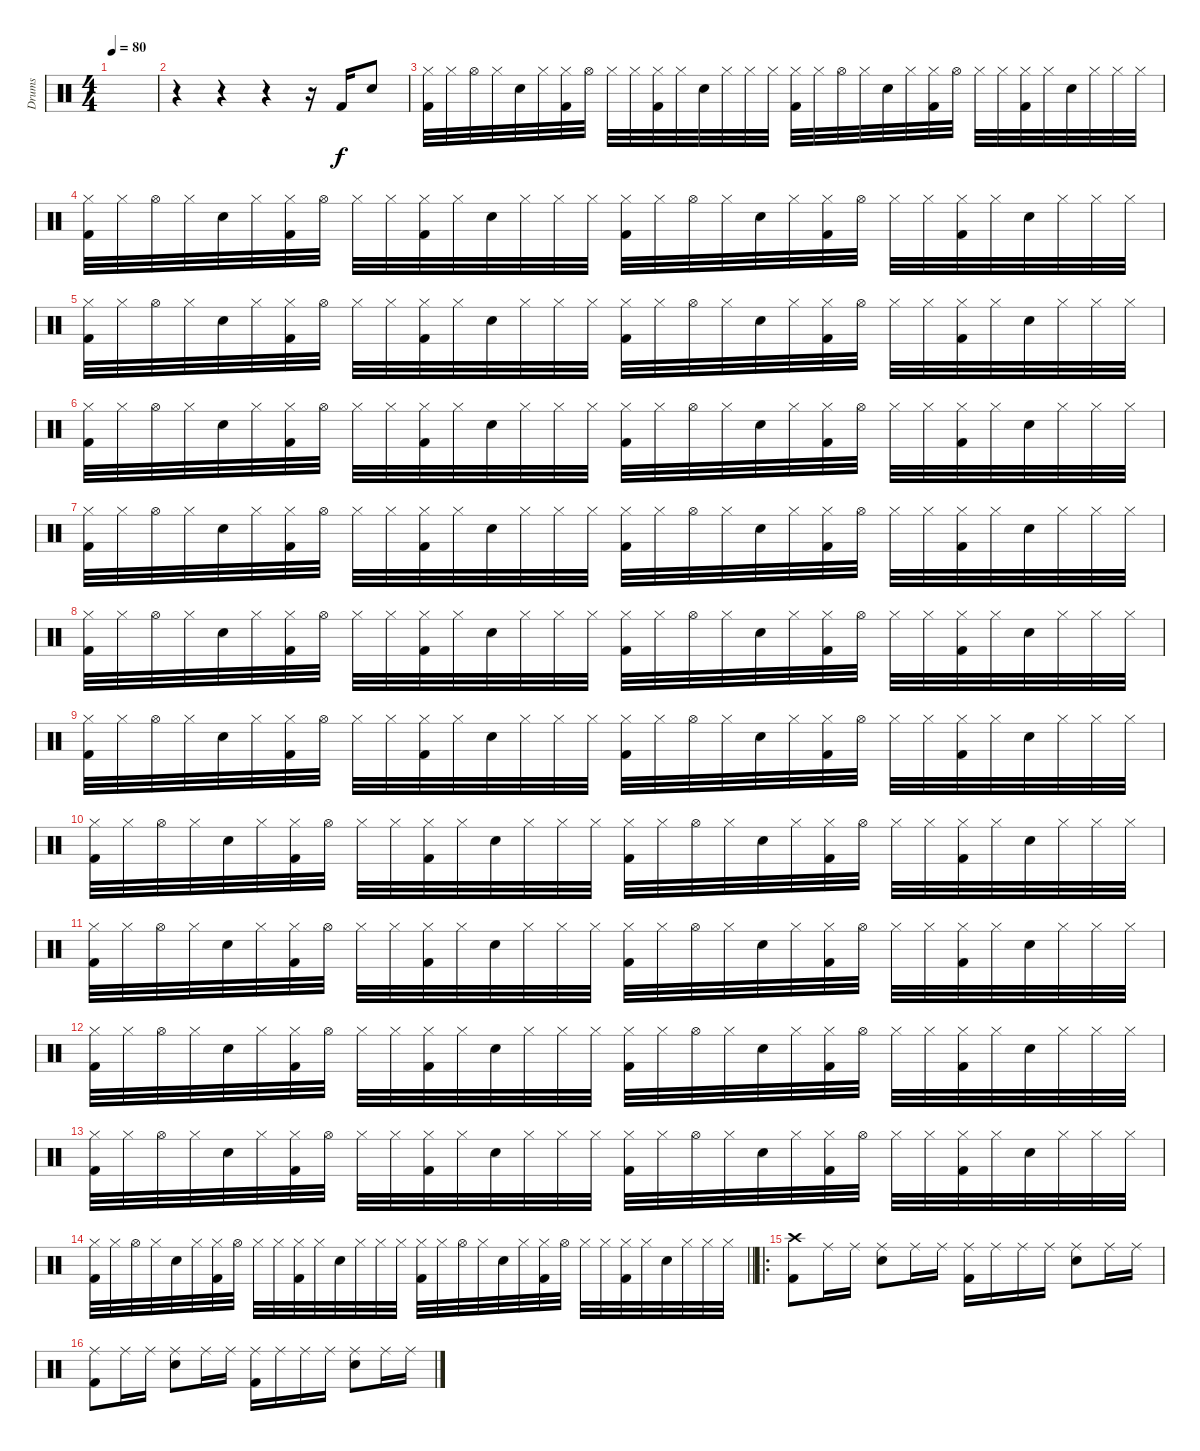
\track ("Drums" "Drums") {instrument percussion}
\staff {score}
\articulation defaults
\ts (4 4)
\section ("" "")
\tempo 80
\clef neutral
\ks c
|
r.4 r.4 r.4 r.16 "Kick (hit) 2".16 "Electric Snare (hit)".8 |
("Kick (hit) 2" "Hi-Hat (closed)").32 "Hi-Hat (closed)".32 "Hi-Hat (open)".32 "Hi-Hat (closed)".32 "Electric Snare (hit)".32 "Hi-Hat (closed)".32 ("Kick (hit) 2" "Hi-Hat (closed)").32 "Hi-Hat (open)".32 "Hi-Hat (closed)".32 "Hi-Hat (closed)".32 ("Kick (hit) 2" "Hi-Hat (closed)").32 "Hi-Hat (closed)".32 "Electric Snare (hit)".32 "Hi-Hat (closed)".32 "Hi-Hat (closed)".32 "Hi-Hat (closed)".32 ("Kick (hit) 2" "Hi-Hat (closed)").32 "Hi-Hat (closed)".32 "Hi-Hat (open)".32 "Hi-Hat (closed)".32 "Electric Snare (hit)".32 "Hi-Hat (closed)".32 ("Kick (hit) 2" "Hi-Hat (closed)").32 "Hi-Hat (open)".32 "Hi-Hat (closed)".32 "Hi-Hat (closed)".32 ("Kick (hit) 2" "Hi-Hat (closed)").32 "Hi-Hat (closed)".32 "Electric Snare (hit)".32 "Hi-Hat (closed)".32 "Hi-Hat (closed)".32 "Hi-Hat (closed)".32 |
("Kick (hit) 2" "Hi-Hat (closed)").32 "Hi-Hat (closed)".32 "Hi-Hat (open)".32 "Hi-Hat (closed)".32 "Electric Snare (hit)".32 "Hi-Hat (closed)".32 ("Kick (hit) 2" "Hi-Hat (closed)").32 "Hi-Hat (open)".32 "Hi-Hat (closed)".32 "Hi-Hat (closed)".32 ("Kick (hit) 2" "Hi-Hat (closed)").32 "Hi-Hat (closed)".32 "Electric Snare (hit)".32 "Hi-Hat (closed)".32 "Hi-Hat (closed)".32 "Hi-Hat (closed)".32 ("Kick (hit) 2" "Hi-Hat (closed)").32 "Hi-Hat (closed)".32 "Hi-Hat (open)".32 "Hi-Hat (closed)".32 "Electric Snare (hit)".32 "Hi-Hat (closed)".32 ("Kick (hit) 2" "Hi-Hat (closed)").32 "Hi-Hat (open)".32 "Hi-Hat (closed)".32 "Hi-Hat (closed)".32 ("Kick (hit) 2" "Hi-Hat (closed)").32 "Hi-Hat (closed)".32 "Electric Snare (hit)".32 "Hi-Hat (closed)".32 "Hi-Hat (closed)".32 "Hi-Hat (closed)".32 |
("Kick (hit) 2" "Hi-Hat (closed)").32 "Hi-Hat (closed)".32 "Hi-Hat (open)".32 "Hi-Hat (closed)".32 "Electric Snare (hit)".32 "Hi-Hat (closed)".32 ("Kick (hit) 2" "Hi-Hat (closed)").32 "Hi-Hat (open)".32 "Hi-Hat (closed)".32 "Hi-Hat (closed)".32 ("Kick (hit) 2" "Hi-Hat (closed)").32 "Hi-Hat (closed)".32 "Electric Snare (hit)".32 "Hi-Hat (closed)".32 "Hi-Hat (closed)".32 "Hi-Hat (closed)".32 ("Kick (hit) 2" "Hi-Hat (closed)").32 "Hi-Hat (closed)".32 "Hi-Hat (open)".32 "Hi-Hat (closed)".32 "Electric Snare (hit)".32 "Hi-Hat (closed)".32 ("Kick (hit) 2" "Hi-Hat (closed)").32 "Hi-Hat (open)".32 "Hi-Hat (closed)".32 "Hi-Hat (closed)".32 ("Kick (hit) 2" "Hi-Hat (closed)").32 "Hi-Hat (closed)".32 "Electric Snare (hit)".32 "Hi-Hat (closed)".32 "Hi-Hat (closed)".32 "Hi-Hat (closed)".32 |
("Kick (hit) 2" "Hi-Hat (closed)").32 "Hi-Hat (closed)".32 "Hi-Hat (open)".32 "Hi-Hat (closed)".32 "Electric Snare (hit)".32 "Hi-Hat (closed)".32 ("Kick (hit) 2" "Hi-Hat (closed)").32 "Hi-Hat (open)".32 "Hi-Hat (closed)".32 "Hi-Hat (closed)".32 ("Kick (hit) 2" "Hi-Hat (closed)").32 "Hi-Hat (closed)".32 "Electric Snare (hit)".32 "Hi-Hat (closed)".32 "Hi-Hat (closed)".32 "Hi-Hat (closed)".32 ("Kick (hit) 2" "Hi-Hat (closed)").32 "Hi-Hat (closed)".32 "Hi-Hat (open)".32 "Hi-Hat (closed)".32 "Electric Snare (hit)".32 "Hi-Hat (closed)".32 ("Kick (hit) 2" "Hi-Hat (closed)").32 "Hi-Hat (open)".32 "Hi-Hat (closed)".32 "Hi-Hat (closed)".32 ("Kick (hit) 2" "Hi-Hat (closed)").32 "Hi-Hat (closed)".32 "Electric Snare (hit)".32 "Hi-Hat (closed)".32 "Hi-Hat (closed)".32 "Hi-Hat (closed)".32 |
("Kick (hit) 2" "Hi-Hat (closed)").32 "Hi-Hat (closed)".32 "Hi-Hat (open)".32 "Hi-Hat (closed)".32 "Electric Snare (hit)".32 "Hi-Hat (closed)".32 ("Kick (hit) 2" "Hi-Hat (closed)").32 "Hi-Hat (open)".32 "Hi-Hat (closed)".32 "Hi-Hat (closed)".32 ("Kick (hit) 2" "Hi-Hat (closed)").32 "Hi-Hat (closed)".32 "Electric Snare (hit)".32 "Hi-Hat (closed)".32 "Hi-Hat (closed)".32 "Hi-Hat (closed)".32 ("Kick (hit) 2" "Hi-Hat (closed)").32 "Hi-Hat (closed)".32 "Hi-Hat (open)".32 "Hi-Hat (closed)".32 "Electric Snare (hit)".32 "Hi-Hat (closed)".32 ("Kick (hit) 2" "Hi-Hat (closed)").32 "Hi-Hat (open)".32 "Hi-Hat (closed)".32 "Hi-Hat (closed)".32 ("Kick (hit) 2" "Hi-Hat (closed)").32 "Hi-Hat (closed)".32 "Electric Snare (hit)".32 "Hi-Hat (closed)".32 "Hi-Hat (closed)".32 "Hi-Hat (closed)".32 |
("Kick (hit) 2" "Hi-Hat (closed)").32 "Hi-Hat (closed)".32 "Hi-Hat (open)".32 "Hi-Hat (closed)".32 "Electric Snare (hit)".32 "Hi-Hat (closed)".32 ("Kick (hit) 2" "Hi-Hat (closed)").32 "Hi-Hat (open)".32 "Hi-Hat (closed)".32 "Hi-Hat (closed)".32 ("Kick (hit) 2" "Hi-Hat (closed)").32 "Hi-Hat (closed)".32 "Electric Snare (hit)".32 "Hi-Hat (closed)".32 "Hi-Hat (closed)".32 "Hi-Hat (closed)".32 ("Kick (hit) 2" "Hi-Hat (closed)").32 "Hi-Hat (closed)".32 "Hi-Hat (open)".32 "Hi-Hat (closed)".32 "Electric Snare (hit)".32 "Hi-Hat (closed)".32 ("Kick (hit) 2" "Hi-Hat (closed)").32 "Hi-Hat (open)".32 "Hi-Hat (closed)".32 "Hi-Hat (closed)".32 ("Kick (hit) 2" "Hi-Hat (closed)").32 "Hi-Hat (closed)".32 "Electric Snare (hit)".32 "Hi-Hat (closed)".32 "Hi-Hat (closed)".32 "Hi-Hat (closed)".32 |
("Kick (hit) 2" "Hi-Hat (closed)").32 "Hi-Hat (closed)".32 "Hi-Hat (open)".32 "Hi-Hat (closed)".32 "Electric Snare (hit)".32 "Hi-Hat (closed)".32 ("Kick (hit) 2" "Hi-Hat (closed)").32 "Hi-Hat (open)".32 "Hi-Hat (closed)".32 "Hi-Hat (closed)".32 ("Kick (hit) 2" "Hi-Hat (closed)").32 "Hi-Hat (closed)".32 "Electric Snare (hit)".32 "Hi-Hat (closed)".32 "Hi-Hat (closed)".32 "Hi-Hat (closed)".32 ("Kick (hit) 2" "Hi-Hat (closed)").32 "Hi-Hat (closed)".32 "Hi-Hat (open)".32 "Hi-Hat (closed)".32 "Electric Snare (hit)".32 "Hi-Hat (closed)".32 ("Kick (hit) 2" "Hi-Hat (closed)").32 "Hi-Hat (open)".32 "Hi-Hat (closed)".32 "Hi-Hat (closed)".32 ("Kick (hit) 2" "Hi-Hat (closed)").32 "Hi-Hat (closed)".32 "Electric Snare (hit)".32 "Hi-Hat (closed)".32 "Hi-Hat (closed)".32 "Hi-Hat (closed)".32 |
("Kick (hit) 2" "Hi-Hat (closed)").32 "Hi-Hat (closed)".32 "Hi-Hat (open)".32 "Hi-Hat (closed)".32 "Electric Snare (hit)".32 "Hi-Hat (closed)".32 ("Kick (hit) 2" "Hi-Hat (closed)").32 "Hi-Hat (open)".32 "Hi-Hat (closed)".32 "Hi-Hat (closed)".32 ("Kick (hit) 2" "Hi-Hat (closed)").32 "Hi-Hat (closed)".32 "Electric Snare (hit)".32 "Hi-Hat (closed)".32 "Hi-Hat (closed)".32 "Hi-Hat (closed)".32 ("Kick (hit) 2" "Hi-Hat (closed)").32 "Hi-Hat (closed)".32 "Hi-Hat (open)".32 "Hi-Hat (closed)".32 "Electric Snare (hit)".32 "Hi-Hat (closed)".32 ("Kick (hit) 2" "Hi-Hat (closed)").32 "Hi-Hat (open)".32 "Hi-Hat (closed)".32 "Hi-Hat (closed)".32 ("Kick (hit) 2" "Hi-Hat (closed)").32 "Hi-Hat (closed)".32 "Electric Snare (hit)".32 "Hi-Hat (closed)".32 "Hi-Hat (closed)".32 "Hi-Hat (closed)".32 |
("Kick (hit) 2" "Hi-Hat (closed)").32 "Hi-Hat (closed)".32 "Hi-Hat (open)".32 "Hi-Hat (closed)".32 "Electric Snare (hit)".32 "Hi-Hat (closed)".32 ("Kick (hit) 2" "Hi-Hat (closed)").32 "Hi-Hat (open)".32 "Hi-Hat (closed)".32 "Hi-Hat (closed)".32 ("Kick (hit) 2" "Hi-Hat (closed)").32 "Hi-Hat (closed)".32 "Electric Snare (hit)".32 "Hi-Hat (closed)".32 "Hi-Hat (closed)".32 "Hi-Hat (closed)".32 ("Kick (hit) 2" "Hi-Hat (closed)").32 "Hi-Hat (closed)".32 "Hi-Hat (open)".32 "Hi-Hat (closed)".32 "Electric Snare (hit)".32 "Hi-Hat (closed)".32 ("Kick (hit) 2" "Hi-Hat (closed)").32 "Hi-Hat (open)".32 "Hi-Hat (closed)".32 "Hi-Hat (closed)".32 ("Kick (hit) 2" "Hi-Hat (closed)").32 "Hi-Hat (closed)".32 "Electric Snare (hit)".32 "Hi-Hat (closed)".32 "Hi-Hat (closed)".32 "Hi-Hat (closed)".32 |
("Kick (hit) 2" "Hi-Hat (closed)").32 "Hi-Hat (closed)".32 "Hi-Hat (open)".32 "Hi-Hat (closed)".32 "Electric Snare (hit)".32 "Hi-Hat (closed)".32 ("Kick (hit) 2" "Hi-Hat (closed)").32 "Hi-Hat (open)".32 "Hi-Hat (closed)".32 "Hi-Hat (closed)".32 ("Kick (hit) 2" "Hi-Hat (closed)").32 "Hi-Hat (closed)".32 "Electric Snare (hit)".32 "Hi-Hat (closed)".32 "Hi-Hat (closed)".32 "Hi-Hat (closed)".32 ("Kick (hit) 2" "Hi-Hat (closed)").32 "Hi-Hat (closed)".32 "Hi-Hat (open)".32 "Hi-Hat (closed)".32 "Electric Snare (hit)".32 "Hi-Hat (closed)".32 ("Kick (hit) 2" "Hi-Hat (closed)").32 "Hi-Hat (open)".32 "Hi-Hat (closed)".32 "Hi-Hat (closed)".32 ("Kick (hit) 2" "Hi-Hat (closed)").32 "Hi-Hat (closed)".32 "Electric Snare (hit)".32 "Hi-Hat (closed)".32 "Hi-Hat (closed)".32 "Hi-Hat (closed)".32 |
("Kick (hit) 2" "Hi-Hat (closed)").32 "Hi-Hat (closed)".32 "Hi-Hat (open)".32 "Hi-Hat (closed)".32 "Electric Snare (hit)".32 "Hi-Hat (closed)".32 ("Kick (hit) 2" "Hi-Hat (closed)").32 "Hi-Hat (open)".32 "Hi-Hat (closed)".32 "Hi-Hat (closed)".32 ("Kick (hit) 2" "Hi-Hat (closed)").32 "Hi-Hat (closed)".32 "Electric Snare (hit)".32 "Hi-Hat (closed)".32 "Hi-Hat (closed)".32 "Hi-Hat (closed)".32 ("Kick (hit) 2" "Hi-Hat (closed)").32 "Hi-Hat (closed)".32 "Hi-Hat (open)".32 "Hi-Hat (closed)".32 "Electric Snare (hit)".32 "Hi-Hat (closed)".32 ("Kick (hit) 2" "Hi-Hat (closed)").32 "Hi-Hat (open)".32 "Hi-Hat (closed)".32 "Hi-Hat (closed)".32 ("Kick (hit) 2" "Hi-Hat (closed)").32 "Hi-Hat (closed)".32 "Electric Snare (hit)".32 "Hi-Hat (closed)".32 "Hi-Hat (closed)".32 "Hi-Hat (closed)".32 |
\barLineRight lightlight
("Kick (hit) 2" "Hi-Hat (closed)").32 "Hi-Hat (closed)".32 "Hi-Hat (open)".32 "Hi-Hat (closed)".32 "Electric Snare (hit)".32 "Hi-Hat (closed)".32 ("Kick (hit) 2" "Hi-Hat (closed)").32 "Hi-Hat (open)".32 "Hi-Hat (closed)".32 "Hi-Hat (closed)".32 ("Kick (hit) 2" "Hi-Hat (closed)").32 "Hi-Hat (closed)".32 "Electric Snare (hit)".32 "Hi-Hat (closed)".32 "Hi-Hat (closed)".32 "Hi-Hat (closed)".32 ("Kick (hit) 2" "Hi-Hat (closed)").32 "Hi-Hat (closed)".32 "Hi-Hat (open)".32 "Hi-Hat (closed)".32 "Electric Snare (hit)".32 "Hi-Hat (closed)".32 ("Kick (hit) 2" "Hi-Hat (closed)").32 "Hi-Hat (open)".32 "Hi-Hat (closed)".32 "Hi-Hat (closed)".32 ("Kick (hit) 2" "Hi-Hat (closed)").32 "Hi-Hat (closed)".32 "Electric Snare (hit)".32 "Hi-Hat (closed)".32 "Hi-Hat (closed)".32 "Hi-Hat (closed)".32 |
\ro
\section ("" "")
("Kick (hit) 2" "Crash high (hit)").8 "Ride (middle)".16 "Ride (middle)".16 ("Electric Snare (hit)" "Ride (middle)").8 "Ride (middle)".16 "Ride (middle)".16 ("Kick (hit) 2" "Ride (middle)").16 "Ride (middle)".16 "Ride (middle)".16 "Ride (middle)".16 ("Electric Snare (hit)" "Ride (middle)").8 "Ride (middle)".16 "Ride (middle)".16 |
("Kick (hit) 2" "Ride (middle)").8 "Ride (middle)".16 "Ride (middle)".16 ("Electric Snare (hit)" "Ride (middle)").8 "Ride (middle)".16 "Ride (middle)".16 ("Kick (hit) 2" "Ride (middle)").16 "Ride (middle)".16 "Ride (middle)".16 "Ride (middle)".16 ("Electric Snare (hit)" "Ride (middle)").8 "Ride (middle)".16 "Ride (middle)".16
